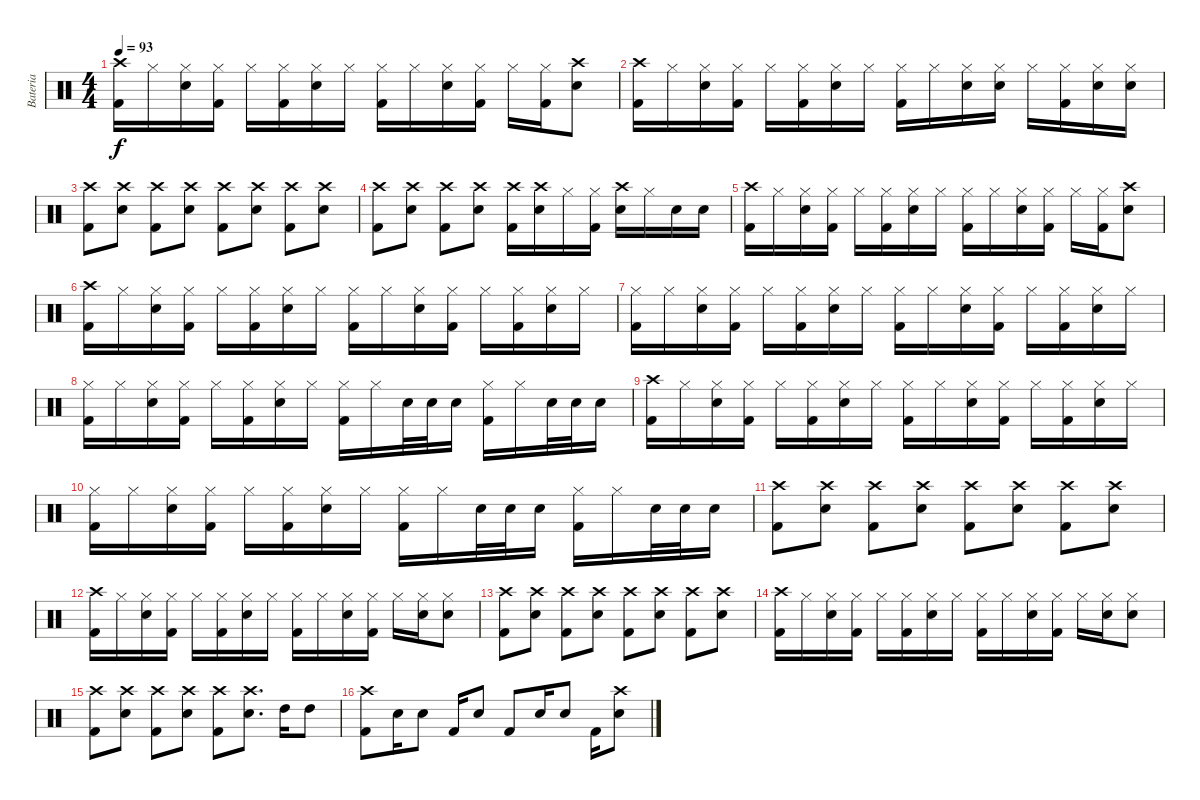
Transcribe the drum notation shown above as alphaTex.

\track ("Bateria" "Bateria") {instrument percussion}
\staff {score}
\articulation defaults
\ts (4 4)
\tempo 93
\clef neutral
\ks c
("Crash high (hit)" "Kick (hit) 2").16{dy f} "Hi-Hat (closed)".16 ("Hi-Hat (closed)" "Snare (hit) 2").16 ("Hi-Hat (closed)" "Kick (hit) 2").16 "Hi-Hat (closed)".16 ("Hi-Hat (closed)" "Kick (hit) 2").16 ("Hi-Hat (closed)" "Snare (hit) 2").16 "Hi-Hat (closed)".16 ("Hi-Hat (closed)" "Kick (hit) 2").16 "Hi-Hat (closed)".16 ("Hi-Hat (closed)" "Snare (hit) 2").16 ("Hi-Hat (closed)" "Kick (hit) 2").16 "Hi-Hat (closed)".16 ("Hi-Hat (closed)" "Kick (hit) 2").16 ("Crash high (hit)" "Snare (hit) 2").8 |
("Crash high (hit)" "Kick (hit) 2").16 "Hi-Hat (closed)".16 ("Hi-Hat (closed)" "Snare (hit) 2").16 ("Hi-Hat (closed)" "Kick (hit) 2").16 "Hi-Hat (closed)".16 ("Hi-Hat (closed)" "Kick (hit) 2").16 ("Hi-Hat (closed)" "Snare (hit) 2").16 "Hi-Hat (closed)".16 ("Hi-Hat (closed)" "Kick (hit) 2").16 "Hi-Hat (closed)".16 ("Hi-Hat (closed)" "Snare (hit) 2").16 ("Hi-Hat (closed)" "Snare (hit) 2").16 "Hi-Hat (closed)".16 ("Hi-Hat (closed)" "Kick (hit) 2").16 ("Hi-Hat (closed)" "Snare (hit) 2").16 ("Hi-Hat (closed)" "Snare (hit) 2").16 |
("Crash high (hit)" "Kick (hit) 2").8 ("Crash high (hit)" "Snare (hit) 2").8 ("Crash high (hit)" "Kick (hit) 2").8 ("Crash high (hit)" "Snare (hit) 2").8 ("Crash high (hit)" "Kick (hit) 2").8 ("Crash high (hit)" "Snare (hit) 2").8 ("Crash high (hit)" "Kick (hit) 2").8 ("Crash high (hit)" "Snare (hit) 2").8 |
("Crash high (hit)" "Kick (hit) 2").8 ("Crash high (hit)" "Snare (hit) 2").8 ("Crash high (hit)" "Kick (hit) 2").8 ("Crash high (hit)" "Snare (hit) 2").8 ("Crash high (hit)" "Kick (hit) 2").16 ("Crash high (hit)" "Snare (hit) 2").16 "Hi-Hat (closed)".16 ("Hi-Hat (closed)" "Kick (hit) 2").16 ("Snare (hit) 2" "Crash high (hit)").16 "Hi-Hat (closed)".16 "Snare (hit) 2".16 "Snare (hit) 2".16 |
("Crash high (hit)" "Kick (hit) 2").16 "Hi-Hat (closed)".16 ("Hi-Hat (closed)" "Snare (hit) 2").16 ("Hi-Hat (closed)" "Kick (hit) 2").16 "Hi-Hat (closed)".16 ("Hi-Hat (closed)" "Kick (hit) 2").16 ("Hi-Hat (closed)" "Snare (hit) 2").16 "Hi-Hat (closed)".16 ("Hi-Hat (closed)" "Kick (hit) 2").16 "Hi-Hat (closed)".16 ("Hi-Hat (closed)" "Snare (hit) 2").16 ("Hi-Hat (closed)" "Kick (hit) 2").16 "Hi-Hat (closed)".16 ("Hi-Hat (closed)" "Kick (hit) 2").16 ("Crash high (hit)" "Snare (hit) 2").8 |
("Crash high (hit)" "Kick (hit) 2").16 "Hi-Hat (closed)".16 ("Hi-Hat (closed)" "Snare (hit) 2").16 ("Hi-Hat (closed)" "Kick (hit) 2").16 "Hi-Hat (closed)".16 ("Hi-Hat (closed)" "Kick (hit) 2").16 ("Hi-Hat (closed)" "Snare (hit) 2").16 "Hi-Hat (closed)".16 ("Hi-Hat (closed)" "Kick (hit) 2").16 "Hi-Hat (closed)".16 ("Hi-Hat (closed)" "Snare (hit) 2").16 ("Hi-Hat (closed)" "Kick (hit) 2").16 "Hi-Hat (closed)".16 ("Hi-Hat (closed)" "Kick (hit) 2").16 ("Hi-Hat (closed)" "Snare (hit) 2").16 "Hi-Hat (closed)".16 |
("Hi-Hat (closed)" "Kick (hit) 2").16 "Hi-Hat (closed)".16 ("Hi-Hat (closed)" "Snare (hit) 2").16 ("Hi-Hat (closed)" "Kick (hit) 2").16 "Hi-Hat (closed)".16 ("Hi-Hat (closed)" "Kick (hit) 2").16 ("Hi-Hat (closed)" "Snare (hit) 2").16 "Hi-Hat (closed)".16 ("Hi-Hat (closed)" "Kick (hit) 2").16 "Hi-Hat (closed)".16 ("Hi-Hat (closed)" "Snare (hit) 2").16 ("Hi-Hat (closed)" "Kick (hit) 2").16 "Hi-Hat (closed)".16 ("Hi-Hat (closed)" "Kick (hit) 2").16 ("Hi-Hat (closed)" "Snare (hit) 2").16 "Hi-Hat (closed)".16 |
("Hi-Hat (closed)" "Kick (hit) 2").16 "Hi-Hat (closed)".16 ("Hi-Hat (closed)" "Snare (hit) 2").16 ("Hi-Hat (closed)" "Kick (hit) 2").16 "Hi-Hat (closed)".16 ("Hi-Hat (closed)" "Kick (hit) 2").16 ("Hi-Hat (closed)" "Snare (hit) 2").16 "Hi-Hat (closed)".16 ("Hi-Hat (closed)" "Kick (hit) 2").16 "Hi-Hat (closed)".16 "Snare (hit) 2".32 "Snare (hit) 2".32 "Snare (hit) 2".16 ("Hi-Hat (closed)" "Kick (hit) 2").16 "Hi-Hat (closed)".16 "Snare (hit) 2".32 "Snare (hit) 2".32 "Snare (hit) 2".16 |
("Crash high (hit)" "Kick (hit) 2").16 "Hi-Hat (closed)".16 ("Hi-Hat (closed)" "Snare (hit) 2").16 ("Hi-Hat (closed)" "Kick (hit) 2").16 "Hi-Hat (closed)".16 ("Hi-Hat (closed)" "Kick (hit) 2").16 ("Hi-Hat (closed)" "Snare (hit) 2").16 "Hi-Hat (closed)".16 ("Hi-Hat (closed)" "Kick (hit) 2").16 "Hi-Hat (closed)".16 ("Hi-Hat (closed)" "Snare (hit) 2").16 ("Hi-Hat (closed)" "Kick (hit) 2").16 "Hi-Hat (closed)".16 ("Hi-Hat (closed)" "Kick (hit) 2").16 ("Hi-Hat (closed)" "Snare (hit) 2").16 "Hi-Hat (closed)".16 |
("Hi-Hat (closed)" "Kick (hit) 2").16 "Hi-Hat (closed)".16 ("Hi-Hat (closed)" "Snare (hit) 2").16 ("Hi-Hat (closed)" "Kick (hit) 2").16 "Hi-Hat (closed)".16 ("Hi-Hat (closed)" "Kick (hit) 2").16 ("Hi-Hat (closed)" "Snare (hit) 2").16 "Hi-Hat (closed)".16 ("Hi-Hat (closed)" "Kick (hit) 2").16 "Hi-Hat (closed)".16 "Snare (hit) 2".32 "Snare (hit) 2".32 "Snare (hit) 2".16 ("Hi-Hat (closed)" "Kick (hit) 2").16 "Hi-Hat (closed)".16 "Snare (hit) 2".32 "Snare (hit) 2".32 "Snare (hit) 2".16 |
("Crash high (hit)" "Kick (hit) 2").8 ("Crash high (hit)" "Snare (hit) 2").8 ("Crash high (hit)" "Kick (hit) 2").8 ("Crash high (hit)" "Snare (hit) 2").8 ("Crash high (hit)" "Kick (hit) 2").8 ("Crash high (hit)" "Snare (hit) 2").8 ("Crash high (hit)" "Kick (hit) 2").8 ("Crash high (hit)" "Snare (hit) 2").8 |
("Crash high (hit)" "Kick (hit) 2").16 "Hi-Hat (closed)".16 ("Hi-Hat (closed)" "Snare (hit) 2").16 ("Hi-Hat (closed)" "Kick (hit) 2").16 "Hi-Hat (closed)".16 ("Hi-Hat (closed)" "Kick (hit) 2").16 ("Hi-Hat (closed)" "Snare (hit) 2").16 "Hi-Hat (closed)".16 ("Hi-Hat (closed)" "Kick (hit) 2").16 "Hi-Hat (closed)".16 ("Hi-Hat (closed)" "Snare (hit) 2").16 ("Hi-Hat (closed)" "Kick (hit) 2").16 "Hi-Hat (closed)".16 ("Hi-Hat (closed)" "Snare (hit) 2").16 ("Hi-Hat (closed)" "Snare (hit) 2").8 |
("Crash high (hit)" "Kick (hit) 2").8 ("Crash high (hit)" "Snare (hit) 2").8 ("Crash high (hit)" "Kick (hit) 2").8 ("Crash high (hit)" "Snare (hit) 2").8 ("Crash high (hit)" "Kick (hit) 2").8 ("Crash high (hit)" "Snare (hit) 2").8 ("Crash high (hit)" "Kick (hit) 2").8 ("Crash high (hit)" "Snare (hit) 2").8 |
("Crash high (hit)" "Kick (hit) 2").16 "Hi-Hat (closed)".16 ("Hi-Hat (closed)" "Snare (hit) 2").16 ("Hi-Hat (closed)" "Kick (hit) 2").16 "Hi-Hat (closed)".16 ("Hi-Hat (closed)" "Kick (hit) 2").16 ("Hi-Hat (closed)" "Snare (hit) 2").16 "Hi-Hat (closed)".16 ("Hi-Hat (closed)" "Kick (hit) 2").16 "Hi-Hat (closed)".16 ("Hi-Hat (closed)" "Snare (hit) 2").16 ("Hi-Hat (closed)" "Kick (hit) 2").16 "Hi-Hat (closed)".16 ("Hi-Hat (closed)" "Snare (hit) 2").16 ("Hi-Hat (closed)" "Snare (hit) 2").8 |
("Crash high (hit)" "Kick (hit) 2").8 ("Crash high (hit)" "Snare (hit) 2").8 ("Crash high (hit)" "Kick (hit) 2").8 ("Crash high (hit)" "Snare (hit) 2").8 ("Crash high (hit)" "Kick (hit) 2").8 ("Crash high (hit)" "Snare (hit) 2").8{d} "High Tom (hit)".16 "High Tom (hit)".8 |
("Crash high (hit)" "Kick (hit) 2").8 "Snare (hit) 2".16 "Snare (hit) 2".8 "Kick (hit) 2".16 "Snare (hit) 2".8 "Kick (hit) 2".8 "Snare (hit) 2".16 "Snare (hit) 2".8 "Kick (hit) 2".16 ("Crash high (hit)" "Snare (hit) 2").8
